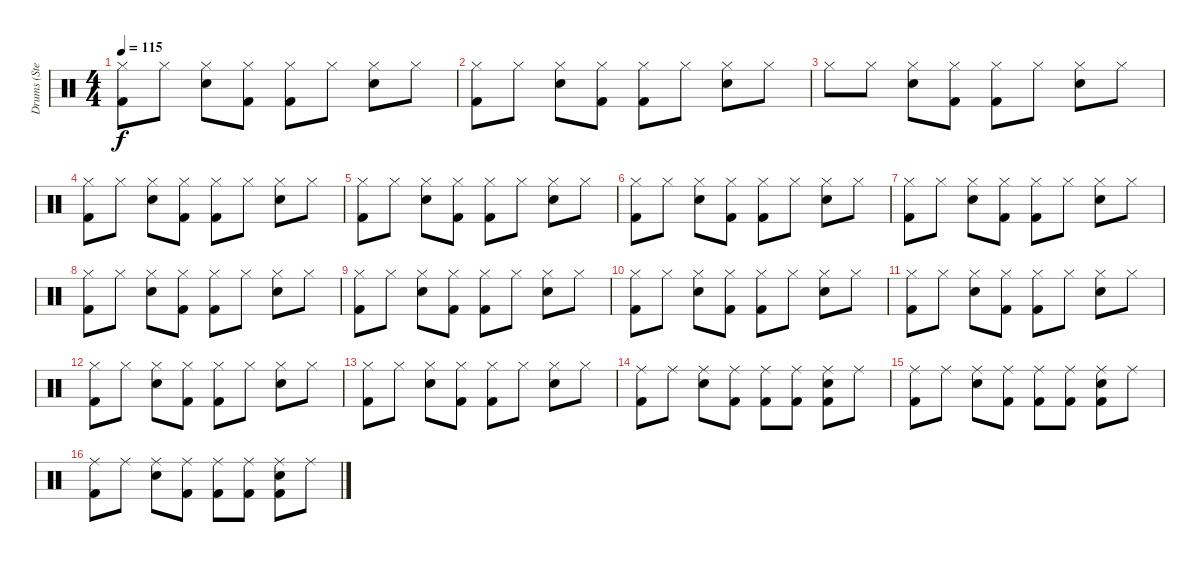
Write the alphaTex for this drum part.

\track ("Drums (Stewart)           " "Drums (Ste") {instrument percussion}
\staff {score}
\articulation defaults
\ts (4 4)
\tempo 115
\clef neutral
\ks c
("Hi-Hat (closed)" "Kick (hit) 2").8{dy f} "Hi-Hat (closed)".8 ("Hi-Hat (closed)" "Snare (hit) 2").8 ("Hi-Hat (closed)" "Kick (hit) 2").8 ("Hi-Hat (closed)" "Kick (hit) 2").8 "Hi-Hat (closed)".8 ("Hi-Hat (closed)" "Snare (hit) 2").8 "Hi-Hat (closed)".8 |
("Hi-Hat (closed)" "Kick (hit) 2").8 "Hi-Hat (closed)".8 ("Hi-Hat (closed)" "Snare (hit) 2").8 ("Hi-Hat (closed)" "Kick (hit) 2").8 ("Hi-Hat (closed)" "Kick (hit) 2").8 "Hi-Hat (closed)".8 ("Hi-Hat (closed)" "Snare (hit) 2").8 "Hi-Hat (closed)".8 |
"Hi-Hat (closed)".8 "Hi-Hat (closed)".8 ("Hi-Hat (closed)" "Snare (hit) 2").8 ("Hi-Hat (closed)" "Kick (hit) 2").8 ("Hi-Hat (closed)" "Kick (hit) 2").8 "Hi-Hat (closed)".8 ("Hi-Hat (closed)" "Snare (hit) 2").8 "Hi-Hat (closed)".8 |
("Hi-Hat (closed)" "Kick (hit) 2").8 "Hi-Hat (closed)".8 ("Hi-Hat (closed)" "Snare (hit) 2").8 ("Hi-Hat (closed)" "Kick (hit) 2").8 ("Hi-Hat (closed)" "Kick (hit) 2").8 "Hi-Hat (closed)".8 ("Hi-Hat (closed)" "Snare (hit) 2").8 "Hi-Hat (closed)".8 |
("Hi-Hat (closed)" "Kick (hit) 2").8 "Hi-Hat (closed)".8 ("Hi-Hat (closed)" "Snare (hit) 2").8 ("Hi-Hat (closed)" "Kick (hit) 2").8 ("Hi-Hat (closed)" "Kick (hit) 2").8 "Hi-Hat (closed)".8 ("Hi-Hat (closed)" "Snare (hit) 2").8 "Hi-Hat (closed)".8 |
("Hi-Hat (closed)" "Kick (hit) 2").8 "Hi-Hat (closed)".8 ("Hi-Hat (closed)" "Snare (hit) 2").8 ("Hi-Hat (closed)" "Kick (hit) 2").8 ("Hi-Hat (closed)" "Kick (hit) 2").8 "Hi-Hat (closed)".8 ("Hi-Hat (closed)" "Snare (hit) 2").8 "Hi-Hat (closed)".8 |
("Hi-Hat (closed)" "Kick (hit) 2").8 "Hi-Hat (closed)".8 ("Hi-Hat (closed)" "Snare (hit) 2").8 ("Hi-Hat (closed)" "Kick (hit) 2").8 ("Hi-Hat (closed)" "Kick (hit) 2").8 "Hi-Hat (closed)".8 ("Hi-Hat (closed)" "Snare (hit) 2").8 "Hi-Hat (closed)".8 |
("Hi-Hat (closed)" "Kick (hit) 2").8 "Hi-Hat (closed)".8 ("Hi-Hat (closed)" "Snare (hit) 2").8 ("Hi-Hat (closed)" "Kick (hit) 2").8 ("Hi-Hat (closed)" "Kick (hit) 2").8 "Hi-Hat (closed)".8 ("Hi-Hat (closed)" "Snare (hit) 2").8 "Hi-Hat (closed)".8 |
("Hi-Hat (closed)" "Kick (hit) 2").8 "Hi-Hat (closed)".8 ("Hi-Hat (closed)" "Snare (hit) 2").8 ("Hi-Hat (closed)" "Kick (hit) 2").8 ("Hi-Hat (closed)" "Kick (hit) 2").8 "Hi-Hat (closed)".8 ("Hi-Hat (closed)" "Snare (hit) 2").8 "Hi-Hat (closed)".8 |
("Hi-Hat (closed)" "Kick (hit) 2").8 "Hi-Hat (closed)".8 ("Hi-Hat (closed)" "Snare (hit) 2").8 ("Hi-Hat (closed)" "Kick (hit) 2").8 ("Hi-Hat (closed)" "Kick (hit) 2").8 "Hi-Hat (closed)".8 ("Hi-Hat (closed)" "Snare (hit) 2").8 "Hi-Hat (closed)".8 |
("Hi-Hat (closed)" "Kick (hit) 2").8 "Hi-Hat (closed)".8 ("Hi-Hat (closed)" "Snare (hit) 2").8 ("Hi-Hat (closed)" "Kick (hit) 2").8 ("Hi-Hat (closed)" "Kick (hit) 2").8 "Hi-Hat (closed)".8 ("Hi-Hat (closed)" "Snare (hit) 2").8 "Hi-Hat (closed)".8 |
("Hi-Hat (closed)" "Kick (hit) 2").8 "Hi-Hat (closed)".8 ("Hi-Hat (closed)" "Snare (hit) 2").8 ("Hi-Hat (closed)" "Kick (hit) 2").8 ("Hi-Hat (closed)" "Kick (hit) 2").8 "Hi-Hat (closed)".8 ("Hi-Hat (closed)" "Snare (hit) 2").8 "Hi-Hat (closed)".8 |
("Hi-Hat (closed)" "Kick (hit) 2").8 "Hi-Hat (closed)".8 ("Hi-Hat (closed)" "Snare (hit) 2").8 ("Hi-Hat (closed)" "Kick (hit) 2").8 ("Hi-Hat (closed)" "Kick (hit) 2").8 "Hi-Hat (closed)".8 ("Hi-Hat (closed)" "Snare (hit) 2").8 "Hi-Hat (closed)".8 |
("Ride (middle)" "Kick (hit) 2").8 "Ride (middle)".8 ("Ride (middle)" "Snare (hit) 2").8 ("Ride (middle)" "Kick (hit) 2").8 ("Ride (middle)" "Kick (hit) 2").8 ("Ride (middle)" "Kick (hit) 2").8 ("Ride (middle)" "Kick (hit) 2" "Snare (hit) 2").8 "Ride (middle)".8 |
("Ride (middle)" "Kick (hit) 2").8 "Ride (middle)".8 ("Ride (middle)" "Snare (hit) 2").8 ("Ride (middle)" "Kick (hit) 2").8 ("Ride (middle)" "Kick (hit) 2").8 ("Ride (middle)" "Kick (hit) 2").8 ("Ride (middle)" "Kick (hit) 2" "Snare (hit) 2").8 "Ride (middle)".8 |
("Ride (middle)" "Kick (hit) 2").8 "Ride (middle)".8 ("Ride (middle)" "Snare (hit) 2").8 ("Ride (middle)" "Kick (hit) 2").8 ("Ride (middle)" "Kick (hit) 2").8 ("Ride (middle)" "Kick (hit) 2").8 ("Ride (middle)" "Kick (hit) 2" "Snare (hit) 2").8 "Ride (middle)".8
